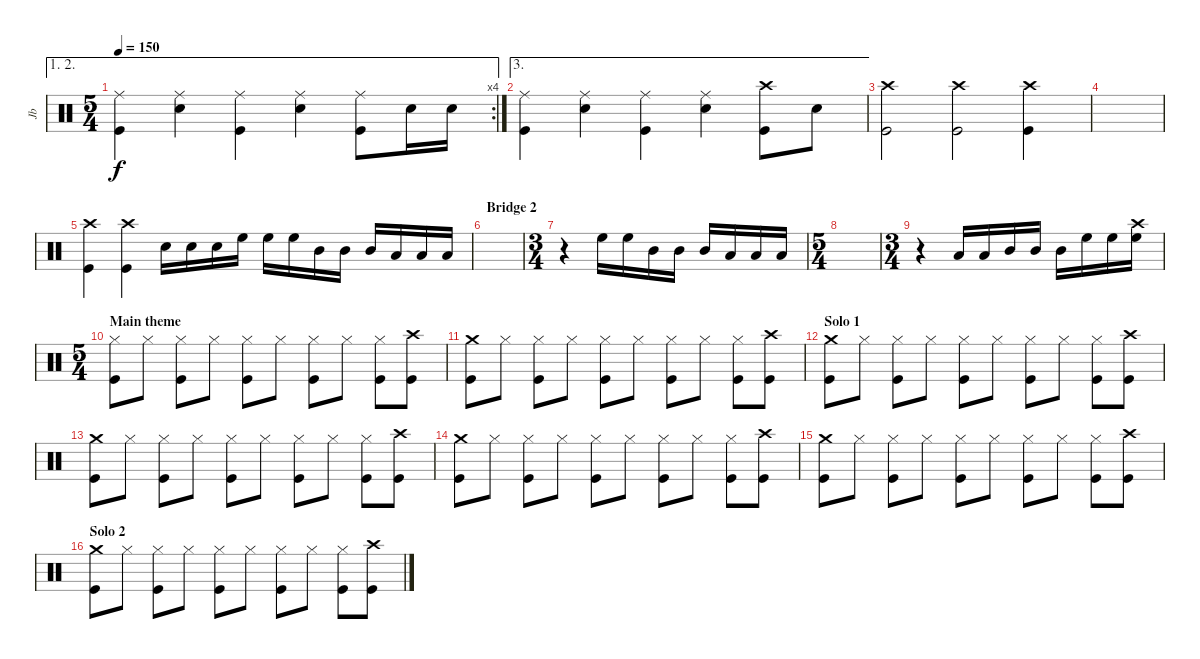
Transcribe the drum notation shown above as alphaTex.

\track ("Jb" "Jb") {instrument percussion}
\staff {score}
\articulation defaults
\ae (1 2)
\rc 4
\ts (5 4)
\tempo 150
\clef neutral
\ks c
("Ride (middle)" "Kick (hit)").4{dy f} ("Ride (middle)" "Electric Snare (hit)").4 ("Ride (middle)" "Kick (hit)").4 ("Ride (middle)" "Electric Snare (hit)").4 ("Ride (middle)" "Kick (hit)").8 "Electric Snare (hit)".16 "Electric Snare (hit)".16 |
\ae 3
("Ride (middle)" "Kick (hit)").4 ("Ride (middle)" "Electric Snare (hit)").4 ("Ride (middle)" "Kick (hit)").4 ("Ride (middle)" "Electric Snare (hit)").4 ("Crash high (hit)" "Kick (hit)").8 "Electric Snare (hit)".8 |
("Crash high (hit)" "Kick (hit)").2 ("Crash high (hit)" "Kick (hit)").2 ("Crash high (hit)" "Kick (hit)").4 |
|
("Crash high (hit)" "Kick (hit)").4 ("Crash high (hit)" "Kick (hit)").4 "Electric Snare (hit)".16 "Electric Snare (hit)".16 "Electric Snare (hit)".16 "High Floor Tom (hit)".16 "High Floor Tom (hit)".16 "High Floor Tom (hit)".16 "Mid Tom (hit)".16 "Mid Tom (hit)".16 "Mid Tom (hit)".16 "Low Floor Tom (hit)".16 "Low Floor Tom (hit)".16 "Low Floor Tom (hit)".16 |
\section ("" "Bridge 2")
|
\ts (3 4)
r.4 "High Floor Tom (hit)".16 "High Floor Tom (hit)".16 "Mid Tom (hit)".16 "Mid Tom (hit)".16 "Mid Tom (hit)".16 "Low Floor Tom (hit)".16 "Low Floor Tom (hit)".16 "Low Floor Tom (hit)".16 |
\ts (5 4)
|
\ts (3 4)
r.4 "Low Floor Tom (hit)".16 "Low Floor Tom (hit)".16 "Mid Tom (hit)".16 "Mid Tom (hit)".16 "Mid Tom (hit)".16 "High Floor Tom (hit)".16 "High Floor Tom (hit)".16 ("Crash high (hit)" "High Floor Tom (hit)").16 |
\ts (5 4)
\section ("" "Main theme")
("Hi-Hat (closed)" "Kick (hit)").8 "Hi-Hat (closed)".8 ("Hi-Hat (closed)" "Kick (hit)").8 "Hi-Hat (closed)".8 ("Hi-Hat (closed)" "Kick (hit)").8 "Hi-Hat (closed)".8 ("Hi-Hat (closed)" "Kick (hit)").8 "Hi-Hat (closed)".8 ("Hi-Hat (closed)" "Kick (hit)").8 ("Crash high (hit)" "Kick (hit)").8 |
("Crash medium (hit)" "Kick (hit)").8 "Hi-Hat (closed)".8 ("Hi-Hat (closed)" "Kick (hit)").8 "Hi-Hat (closed)".8 ("Hi-Hat (closed)" "Kick (hit)").8 "Hi-Hat (closed)".8 ("Hi-Hat (closed)" "Kick (hit)").8 "Hi-Hat (closed)".8 ("Hi-Hat (closed)" "Kick (hit)").8 ("Crash high (hit)" "Kick (hit)").8 |
\section ("" "Solo 1")
("Crash medium (hit)" "Kick (hit)").8 "Hi-Hat (closed)".8 ("Hi-Hat (closed)" "Kick (hit)").8 "Hi-Hat (closed)".8 ("Hi-Hat (closed)" "Kick (hit)").8 "Hi-Hat (closed)".8 ("Hi-Hat (closed)" "Kick (hit)").8 "Hi-Hat (closed)".8 ("Hi-Hat (closed)" "Kick (hit)").8 ("Crash high (hit)" "Kick (hit)").8 |
("Crash medium (hit)" "Kick (hit)").8 "Hi-Hat (closed)".8 ("Hi-Hat (closed)" "Kick (hit)").8 "Hi-Hat (closed)".8 ("Hi-Hat (closed)" "Kick (hit)").8 "Hi-Hat (closed)".8 ("Hi-Hat (closed)" "Kick (hit)").8 "Hi-Hat (closed)".8 ("Hi-Hat (closed)" "Kick (hit)").8 ("Crash high (hit)" "Kick (hit)").8 |
("Crash medium (hit)" "Kick (hit)").8 "Hi-Hat (closed)".8 ("Hi-Hat (closed)" "Kick (hit)").8 "Hi-Hat (closed)".8 ("Hi-Hat (closed)" "Kick (hit)").8 "Hi-Hat (closed)".8 ("Hi-Hat (closed)" "Kick (hit)").8 "Hi-Hat (closed)".8 ("Hi-Hat (closed)" "Kick (hit)").8 ("Crash high (hit)" "Kick (hit)").8 |
("Crash medium (hit)" "Kick (hit)").8 "Hi-Hat (closed)".8 ("Hi-Hat (closed)" "Kick (hit)").8 "Hi-Hat (closed)".8 ("Hi-Hat (closed)" "Kick (hit)").8 "Hi-Hat (closed)".8 ("Hi-Hat (closed)" "Kick (hit)").8 "Hi-Hat (closed)".8 ("Hi-Hat (closed)" "Kick (hit)").8 ("Crash high (hit)" "Kick (hit)").8 |
\section ("" "Solo 2")
("Crash medium (hit)" "Kick (hit)").8 "Hi-Hat (closed)".8 ("Hi-Hat (closed)" "Kick (hit)").8 "Hi-Hat (closed)".8 ("Hi-Hat (closed)" "Kick (hit)").8 "Hi-Hat (closed)".8 ("Hi-Hat (closed)" "Kick (hit)").8 "Hi-Hat (closed)".8 ("Hi-Hat (closed)" "Kick (hit)").8 ("Crash high (hit)" "Kick (hit)").8
